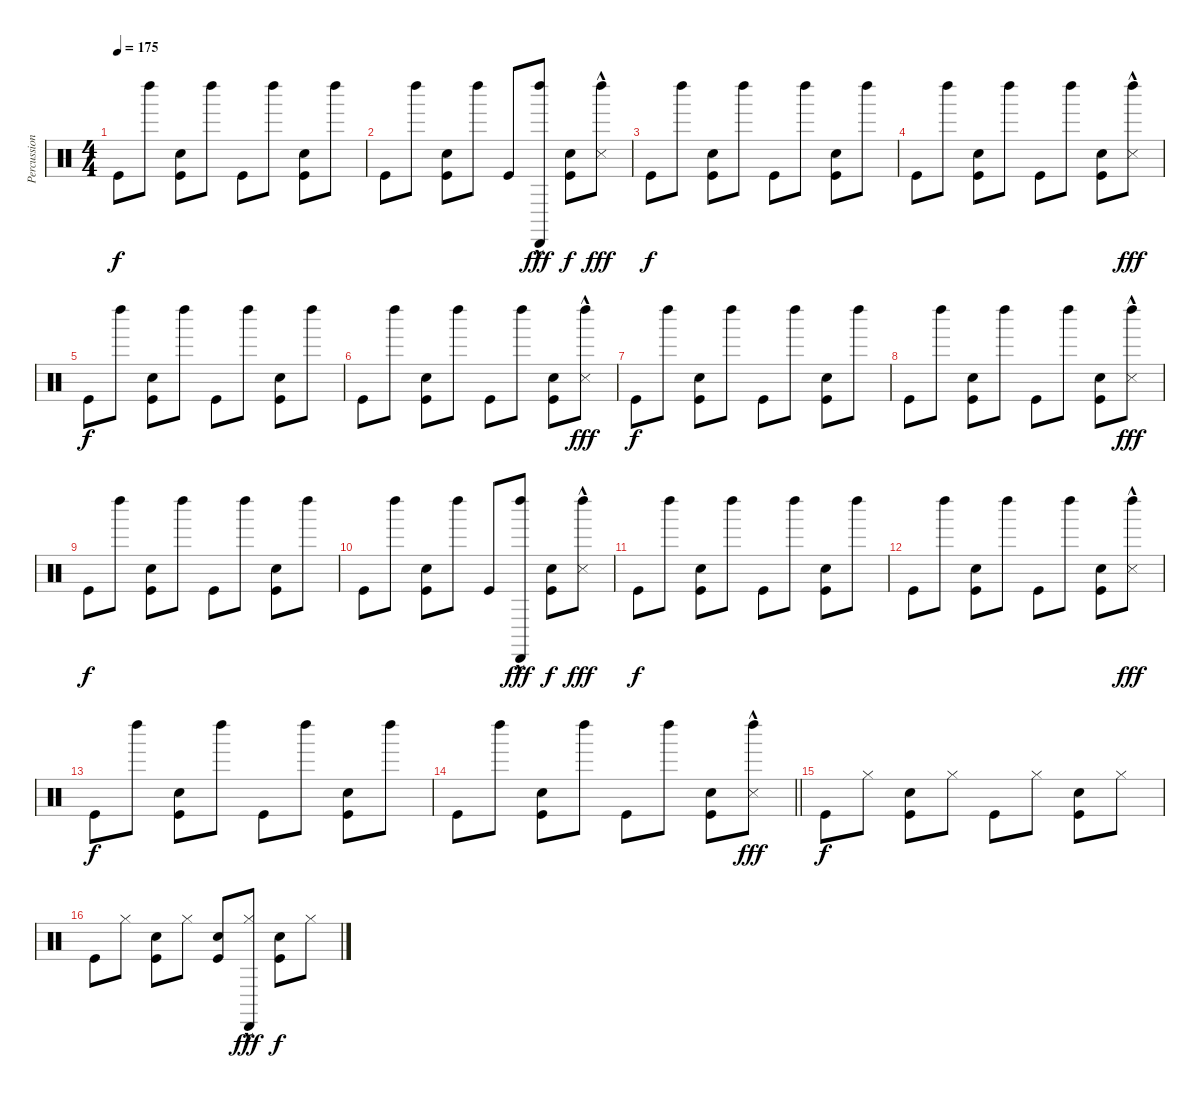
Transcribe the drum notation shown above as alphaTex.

\track ("Percussion" "Percussion") {instrument percussion}
\staff {score}
\articulation defaults
\ts (4 4)
\tempo 175
\clef neutral
\ks c "Kick (hit)".8{dy f} "Left Maraca (hit)".8
("Kick (hit)" "Hand Clap (hit)").8 "Left Maraca (hit)".8 "Kick (hit)".8 "Left Maraca (hit)".8 ("Kick (hit)" "Hand Clap (hit)").8 "Left Maraca (hit)".8 |
"Kick (hit)".8 "Left Maraca (hit)".8 ("Kick (hit)" "Hand Clap (hit)").8 "Left Maraca (hit)".8 "Kick (hit)".8 ("Left Maraca (hit)" "Cabasa (hit)"{hac}).8{dy fff} ("Kick (hit)" "Hand Clap (hit)").8{dy f} ("Left Maraca (hit)" "Metronome (hit)"{hac}).8{dy fff} |
"Kick (hit)".8{dy f} "Left Maraca (hit)".8 ("Kick (hit)" "Hand Clap (hit)").8 "Left Maraca (hit)".8 "Kick (hit)".8 "Left Maraca (hit)".8 ("Kick (hit)" "Hand Clap (hit)").8 "Left Maraca (hit)".8 |
"Kick (hit)".8 "Left Maraca (hit)".8 ("Kick (hit)" "Hand Clap (hit)").8 "Left Maraca (hit)".8 "Kick (hit)".8 "Left Maraca (hit)".8 ("Kick (hit)" "Hand Clap (hit)").8 ("Left Maraca (hit)" "Metronome (hit)"{hac}).8{dy fff} |
"Kick (hit)".8{dy f} "Left Maraca (hit)".8 ("Kick (hit)" "Hand Clap (hit)").8 "Left Maraca (hit)".8 "Kick (hit)".8 "Left Maraca (hit)".8 ("Kick (hit)" "Hand Clap (hit)").8 "Left Maraca (hit)".8 |
"Kick (hit)".8 "Left Maraca (hit)".8 ("Kick (hit)" "Hand Clap (hit)").8 "Left Maraca (hit)".8 "Kick (hit)".8 "Left Maraca (hit)".8 ("Kick (hit)" "Hand Clap (hit)").8 ("Left Maraca (hit)" "Metronome (hit)"{hac}).8{dy fff} |
"Kick (hit)".8{dy f} "Left Maraca (hit)".8 ("Kick (hit)" "Hand Clap (hit)").8 "Left Maraca (hit)".8 "Kick (hit)".8 "Left Maraca (hit)".8 ("Kick (hit)" "Hand Clap (hit)").8 "Left Maraca (hit)".8 |
"Kick (hit)".8 "Left Maraca (hit)".8 ("Kick (hit)" "Hand Clap (hit)").8 "Left Maraca (hit)".8 "Kick (hit)".8 "Left Maraca (hit)".8 ("Kick (hit)" "Hand Clap (hit)").8 ("Left Maraca (hit)" "Metronome (hit)"{hac}).8{dy fff} |
"Kick (hit)".8{dy f} "Left Maraca (hit)".8 ("Kick (hit)" "Hand Clap (hit)").8 "Left Maraca (hit)".8 "Kick (hit)".8 "Left Maraca (hit)".8 ("Kick (hit)" "Hand Clap (hit)").8 "Left Maraca (hit)".8 |
"Kick (hit)".8 "Left Maraca (hit)".8 ("Kick (hit)" "Hand Clap (hit)").8 "Left Maraca (hit)".8 "Kick (hit)".8 ("Left Maraca (hit)" "Cabasa (hit)"{hac}).8{dy fff} ("Kick (hit)" "Hand Clap (hit)").8{dy f} ("Left Maraca (hit)" "Metronome (hit)"{hac}).8{dy fff} |
"Kick (hit)".8{dy f} "Left Maraca (hit)".8 ("Kick (hit)" "Hand Clap (hit)").8 "Left Maraca (hit)".8 "Kick (hit)".8 "Left Maraca (hit)".8 ("Kick (hit)" "Hand Clap (hit)").8 "Left Maraca (hit)".8 |
"Kick (hit)".8 "Left Maraca (hit)".8 ("Kick (hit)" "Hand Clap (hit)").8 "Left Maraca (hit)".8 "Kick (hit)".8 "Left Maraca (hit)".8 ("Kick (hit)" "Hand Clap (hit)").8 ("Left Maraca (hit)" "Metronome (hit)"{hac}).8{dy fff} |
"Kick (hit)".8{dy f} "Left Maraca (hit)".8 ("Kick (hit)" "Hand Clap (hit)").8 "Left Maraca (hit)".8 "Kick (hit)".8 "Left Maraca (hit)".8 ("Kick (hit)" "Hand Clap (hit)").8 "Left Maraca (hit)".8 |
\barLineRight lightlight "Kick (hit)".8 "Left Maraca (hit)".8
("Kick (hit)" "Hand Clap (hit)").8 "Left Maraca (hit)".8 "Kick (hit)".8 "Left Maraca (hit)".8 ("Kick (hit)" "Hand Clap (hit)").8 ("Left Maraca (hit)" "Metronome (hit)"{hac}).8{dy fff} |
"Kick (hit)".8{dy f} "Hi-Hat (closed)".8 ("Kick (hit)" "Snare (hit) 2").8 "Hi-Hat (closed)".8 "Kick (hit)".8 "Hi-Hat (closed)".8 ("Kick (hit)" "Snare (hit) 2").8 "Hi-Hat (closed)".8 |
"Kick (hit)".8 "Hi-Hat (closed)".8 ("Kick (hit)" "Snare (hit) 2").8 "Hi-Hat (closed)".8 ("Kick (hit)" "Hand Clap (hit)").8 ("Hi-Hat (closed)" "Cabasa (hit)"{hac}).8{dy fff} ("Kick (hit)" "Snare (hit) 2").8{dy f} "Hi-Hat (closed)".8
